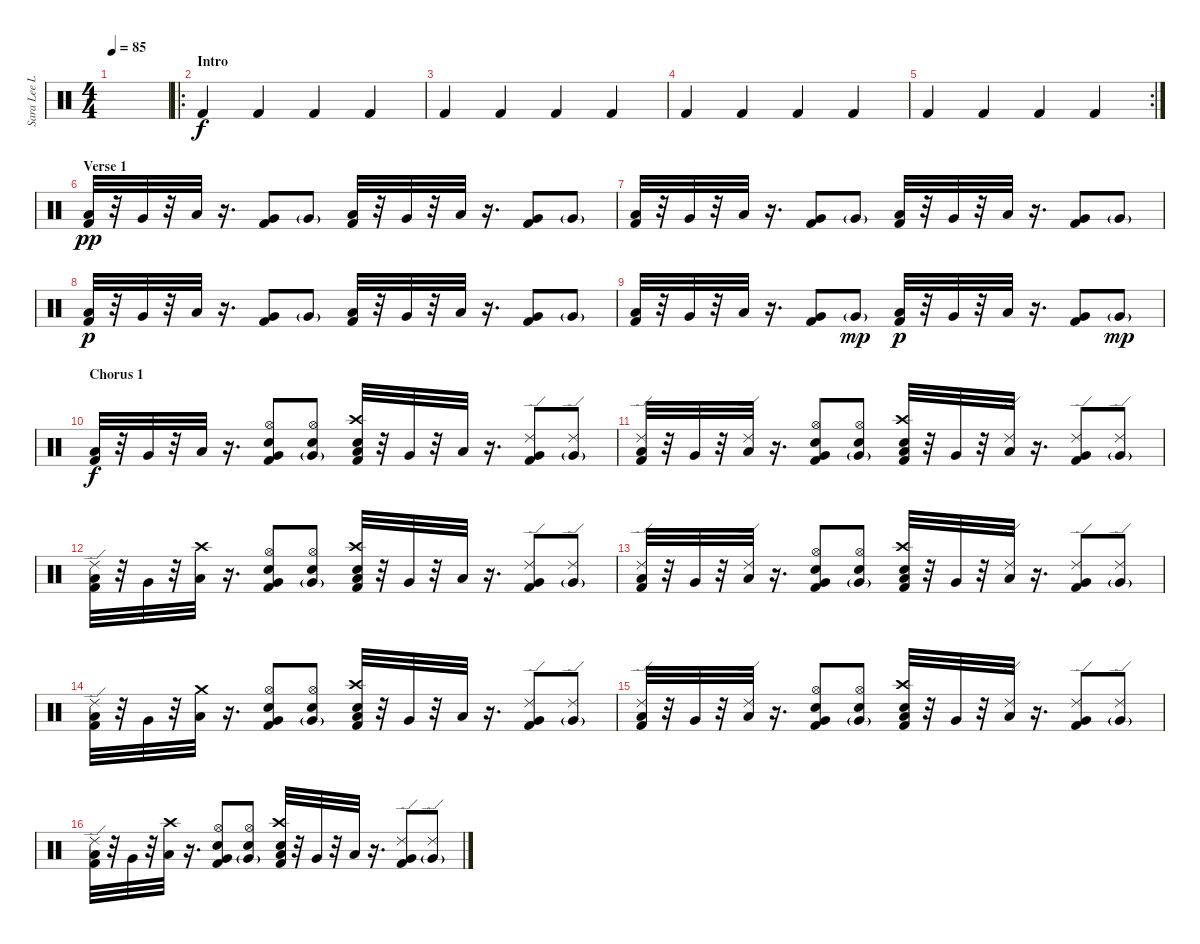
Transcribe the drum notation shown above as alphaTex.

\track ("Sara Lee Lucas [Drums]" "Sara Lee L") {instrument percussion}
\staff {score}
\articulation defaults
\ts (4 4)
\tempo 85
\clef neutral
\ks c
|
\ro
\section ("" "Intro")
"Kick (hit) 2".4 "Kick (hit) 2".4 "Kick (hit) 2".4 "Kick (hit) 2".4 |
"Kick (hit) 2".4 "Kick (hit) 2".4 "Kick (hit) 2".4 "Kick (hit) 2".4 |
"Kick (hit) 2".4 "Kick (hit) 2".4 "Kick (hit) 2".4 "Kick (hit) 2".4 |
\rc 2 "Kick (hit) 2".4 "Kick (hit) 2".4 "Kick (hit) 2".4 "Kick (hit) 2".4
|
\section ("" "Verse 1")
("Low Tom (hit)" "Kick (hit) 2").32{dy pp} r.32 "Very Low Tom (hit)".32 r.32 "Low Floor Tom (hit)".32 r.16{d} ("Very Low Tom (hit)" "Kick (hit) 2").8 "Very Low Tom (hit)"{g}.8 ("Low Tom (hit)" "Kick (hit) 2").32 r.32 "Very Low Tom (hit)".32 r.32 "Low Floor Tom (hit)".32 r.16{d} ("Very Low Tom (hit)" "Kick (hit) 2").8 "Very Low Tom (hit)"{g}.8 |
("Low Tom (hit)" "Kick (hit) 2").32 r.32 "Very Low Tom (hit)".32 r.32 "Low Floor Tom (hit)".32 r.16{d} ("Very Low Tom (hit)" "Kick (hit) 2").8 "Very Low Tom (hit)"{g}.8 ("Low Tom (hit)" "Kick (hit) 2").32 r.32 "Very Low Tom (hit)".32 r.32 "Low Floor Tom (hit)".32 r.16{d} ("Very Low Tom (hit)" "Kick (hit) 2").8 "Very Low Tom (hit)"{g}.8 |
("Low Tom (hit)" "Kick (hit) 2").32{dy p} r.32 "Very Low Tom (hit)".32 r.32 "Low Floor Tom (hit)".32 r.16{d} ("Very Low Tom (hit)" "Kick (hit) 2").8 "Very Low Tom (hit)"{g}.8 ("Low Tom (hit)" "Kick (hit) 2").32 r.32 "Very Low Tom (hit)".32 r.32 "Low Floor Tom (hit)".32 r.16{d} ("Very Low Tom (hit)" "Kick (hit) 2").8 "Very Low Tom (hit)"{g}.8 |
("Low Tom (hit)" "Kick (hit) 2").32 r.32 "Very Low Tom (hit)".32 r.32 "Low Floor Tom (hit)".32 r.16{d} ("Very Low Tom (hit)" "Kick (hit) 2").8 "Very Low Tom (hit)"{g}.8{dy mp} ("Low Tom (hit)" "Kick (hit) 2").32{dy p} r.32 "Very Low Tom (hit)".32 r.32 "Low Floor Tom (hit)".32 r.16{d} ("Very Low Tom (hit)" "Kick (hit) 2").8 "Very Low Tom (hit)"{g}.8{dy mp} |
\section ("" "Chorus 1")
("Low Tom (hit)" "Kick (hit) 2").32{dy f} r.32 "Very Low Tom (hit)".32 r.32 "Low Floor Tom (hit)".32 r.16{d} ("Hi-Hat (open)" "Very Low Tom (hit)" "Snare (hit) 2" "Kick (hit) 2").8 ("Hi-Hat (open)" "Very Low Tom (hit)"{g} "Snare (hit) 2").8 ("Crash high (hit)" "Low Tom (hit)" "Electric Snare (hit)" "Kick (hit) 2").32 r.32 "Very Low Tom (hit)".32 r.32 "Low Floor Tom (hit)".32 r.16{d} ("Ride (edge) 2" "Very Low Tom (hit)" "Kick (hit) 2").8 ("Ride (edge) 2" "Very Low Tom (hit)"{g}).8 |
("Ride (edge) 2" "Low Tom (hit)" "Kick (hit) 2").32 r.32 "Very Low Tom (hit)".32 r.32 ("Ride (edge) 2" "Low Floor Tom (hit)").32 r.16{d} ("Hi-Hat (open)" "Very Low Tom (hit)" "Snare (hit) 2" "Kick (hit) 2").8 ("Hi-Hat (open)" "Very Low Tom (hit)"{g} "Snare (hit) 2").8 ("Crash high (hit)" "Low Tom (hit)" "Electric Snare (hit)" "Kick (hit) 2").32 r.32 "Very Low Tom (hit)".32 r.32 ("Ride (edge) 2" "Low Floor Tom (hit)").32 r.16{d} ("Ride (edge) 2" "Very Low Tom (hit)" "Kick (hit) 2").8 ("Ride (edge) 2" "Very Low Tom (hit)"{g}).8 |
("Ride (edge) 2" "Low Tom (hit)" "Kick (hit) 2").32 r.32 "Very Low Tom (hit)".32 r.32 ("Crash high (hit)" "Low Floor Tom (hit)").32 r.16{d} ("Hi-Hat (open)" "Very Low Tom (hit)" "Snare (hit) 2" "Kick (hit) 2").8 ("Hi-Hat (open)" "Very Low Tom (hit)"{g} "Snare (hit) 2").8 ("Crash high (hit)" "Low Tom (hit)" "Electric Snare (hit)" "Kick (hit) 2").32 r.32 "Very Low Tom (hit)".32 r.32 "Low Floor Tom (hit)".32 r.16{d} ("Ride (edge) 2" "Very Low Tom (hit)" "Kick (hit) 2").8 ("Ride (edge) 2" "Very Low Tom (hit)"{g}).8 |
("Ride (edge) 2" "Low Tom (hit)" "Kick (hit) 2").32 r.32 "Very Low Tom (hit)".32 r.32 ("Ride (edge) 2" "Low Floor Tom (hit)").32 r.16{d} ("Hi-Hat (open)" "Very Low Tom (hit)" "Snare (hit) 2" "Kick (hit) 2").8 ("Hi-Hat (open)" "Very Low Tom (hit)"{g} "Snare (hit) 2").8 ("Crash high (hit)" "Low Tom (hit)" "Electric Snare (hit)" "Kick (hit) 2").32 r.32 "Very Low Tom (hit)".32 r.32 ("Ride (edge) 2" "Low Floor Tom (hit)").32 r.16{d} ("Ride (edge) 2" "Very Low Tom (hit)" "Kick (hit) 2").8 ("Ride (edge) 2" "Very Low Tom (hit)"{g}).8 |
("Ride (edge) 2" "Low Tom (hit)" "Kick (hit) 2").32 r.32 "Very Low Tom (hit)".32 r.32 ("Crash medium (hit)" "Low Floor Tom (hit)").32 r.16{d} ("Hi-Hat (open)" "Very Low Tom (hit)" "Snare (hit) 2" "Kick (hit) 2").8 ("Hi-Hat (open)" "Very Low Tom (hit)"{g} "Snare (hit) 2").8 ("Crash high (hit)" "Low Tom (hit)" "Electric Snare (hit)" "Kick (hit) 2").32 r.32 "Very Low Tom (hit)".32 r.32 "Low Floor Tom (hit)".32 r.16{d} ("Ride (edge) 2" "Very Low Tom (hit)" "Kick (hit) 2").8 ("Ride (edge) 2" "Very Low Tom (hit)"{g}).8 |
("Ride (edge) 2" "Low Tom (hit)" "Kick (hit) 2").32 r.32 "Very Low Tom (hit)".32 r.32 ("Ride (edge) 2" "Low Floor Tom (hit)").32 r.16{d} ("Hi-Hat (open)" "Very Low Tom (hit)" "Snare (hit) 2" "Kick (hit) 2").8 ("Hi-Hat (open)" "Very Low Tom (hit)"{g} "Snare (hit) 2").8 ("Crash high (hit)" "Low Tom (hit)" "Electric Snare (hit)" "Kick (hit) 2").32 r.32 "Very Low Tom (hit)".32 r.32 ("Ride (edge) 2" "Low Floor Tom (hit)").32 r.16{d} ("Ride (edge) 2" "Very Low Tom (hit)" "Kick (hit) 2").8 ("Ride (edge) 2" "Very Low Tom (hit)"{g}).8 |
("Ride (edge) 2" "Low Tom (hit)" "Kick (hit) 2").32 r.32 "Very Low Tom (hit)".32 r.32 ("Crash high (hit)" "Low Floor Tom (hit)").32 r.16{d} ("Hi-Hat (open)" "Very Low Tom (hit)" "Snare (hit) 2" "Kick (hit) 2").8 ("Hi-Hat (open)" "Very Low Tom (hit)"{g} "Snare (hit) 2").8 ("Crash high (hit)" "Low Tom (hit)" "Electric Snare (hit)" "Kick (hit) 2").32 r.32 "Very Low Tom (hit)".32 r.32 "Low Floor Tom (hit)".32 r.16{d} ("Ride (edge) 2" "Very Low Tom (hit)" "Kick (hit) 2").8 ("Ride (edge) 2" "Very Low Tom (hit)"{g}).8
